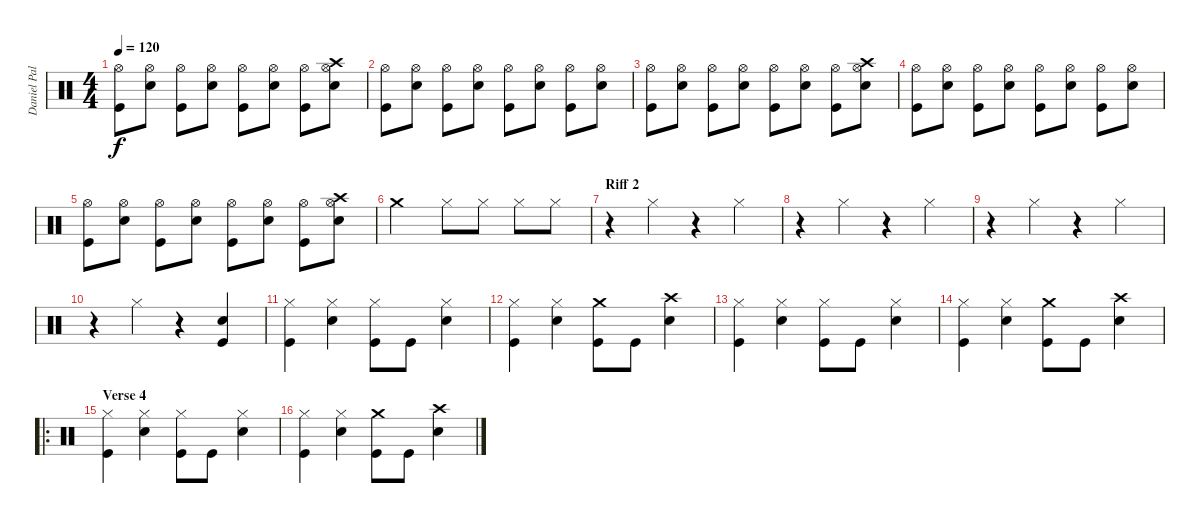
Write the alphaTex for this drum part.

\track ("Daniel Pal" "Daniel Pal") {instrument percussion}
\staff {score}
\articulation defaults
\ts (4 4)
\tempo 120
\clef neutral
\ks c
("Hi-Hat (open)" "Kick (hit)").8{dy f} ("Hi-Hat (open)" "Electric Snare (hit)").8 ("Hi-Hat (open)" "Kick (hit)").8 ("Hi-Hat (open)" "Electric Snare (hit)").8 ("Hi-Hat (open)" "Kick (hit)").8 ("Hi-Hat (open)" "Electric Snare (hit)").8 ("Hi-Hat (open)" "Kick (hit)").8 ("Crash high (hit)" "Hi-Hat (open)" "Electric Snare (hit)").8 |
("Hi-Hat (open)" "Kick (hit)").8 ("Hi-Hat (open)" "Electric Snare (hit)").8 ("Hi-Hat (open)" "Kick (hit)").8 ("Hi-Hat (open)" "Electric Snare (hit)").8 ("Hi-Hat (open)" "Kick (hit)").8 ("Hi-Hat (open)" "Electric Snare (hit)").8 ("Hi-Hat (open)" "Kick (hit)").8 ("Hi-Hat (open)" "Electric Snare (hit)").8 |
("Hi-Hat (open)" "Kick (hit)").8 ("Hi-Hat (open)" "Electric Snare (hit)").8 ("Hi-Hat (open)" "Kick (hit)").8 ("Hi-Hat (open)" "Electric Snare (hit)").8 ("Hi-Hat (open)" "Kick (hit)").8 ("Hi-Hat (open)" "Electric Snare (hit)").8 ("Hi-Hat (open)" "Kick (hit)").8 ("Crash high (hit)" "Hi-Hat (open)" "Electric Snare (hit)").8 |
("Hi-Hat (open)" "Kick (hit)").8 ("Hi-Hat (open)" "Electric Snare (hit)").8 ("Hi-Hat (open)" "Kick (hit)").8 ("Hi-Hat (open)" "Electric Snare (hit)").8 ("Hi-Hat (open)" "Kick (hit)").8 ("Hi-Hat (open)" "Electric Snare (hit)").8 ("Hi-Hat (open)" "Kick (hit)").8 ("Hi-Hat (open)" "Electric Snare (hit)").8 |
("Hi-Hat (open)" "Kick (hit)").8 ("Hi-Hat (open)" "Electric Snare (hit)").8 ("Hi-Hat (open)" "Kick (hit)").8 ("Hi-Hat (open)" "Electric Snare (hit)").8 ("Hi-Hat (open)" "Kick (hit)").8 ("Hi-Hat (open)" "Electric Snare (hit)").8 ("Hi-Hat (open)" "Kick (hit)").8 ("Crash high (hit)" "Hi-Hat (open)" "Electric Snare (hit)").8 |
"Crash medium (hit)".2 "Hi-Hat (closed)".8 "Hi-Hat (closed)".8 "Hi-Hat (closed)".8 "Hi-Hat (closed)".8 |
\section ("" "Riff 2")
r.4 "Hi-Hat (closed)".4 r.4 "Hi-Hat (closed)".4 |
r.4 "Hi-Hat (closed)".4 r.4 "Hi-Hat (closed)".4 |
r.4 "Hi-Hat (closed)".4 r.4 "Hi-Hat (closed)".4 |
r.4 "Hi-Hat (closed)".4 r.4 ("Electric Snare (hit)" "Kick (hit)").4 |
("Hi-Hat (closed)" "Kick (hit)").4 ("Hi-Hat (closed)" "Electric Snare (hit)").4 ("Hi-Hat (closed)" "Kick (hit)").8 "Kick (hit)".8 ("Hi-Hat (closed)" "Electric Snare (hit)").4 |
("Hi-Hat (closed)" "Kick (hit)").4 ("Hi-Hat (closed)" "Electric Snare (hit)").4 ("Crash medium (hit)" "Kick (hit)").8 "Kick (hit)".8 ("Crash high (hit)" "Electric Snare (hit)").4 |
("Hi-Hat (closed)" "Kick (hit)").4 ("Hi-Hat (closed)" "Electric Snare (hit)").4 ("Hi-Hat (closed)" "Kick (hit)").8 "Kick (hit)".8 ("Hi-Hat (closed)" "Electric Snare (hit)").4 |
("Hi-Hat (closed)" "Kick (hit)").4 ("Hi-Hat (closed)" "Electric Snare (hit)").4 ("Crash medium (hit)" "Kick (hit)").8 "Kick (hit)".8 ("Crash high (hit)" "Electric Snare (hit)").4 |
\ro
\section ("" "Verse 4")
("Hi-Hat (closed)" "Kick (hit)").4 ("Hi-Hat (closed)" "Electric Snare (hit)").4 ("Hi-Hat (closed)" "Kick (hit)").8 "Kick (hit)".8 ("Hi-Hat (closed)" "Electric Snare (hit)").4 |
("Hi-Hat (closed)" "Kick (hit)").4 ("Hi-Hat (closed)" "Electric Snare (hit)").4 ("Crash medium (hit)" "Kick (hit)").8 "Kick (hit)".8 ("Crash high (hit)" "Electric Snare (hit)").4
